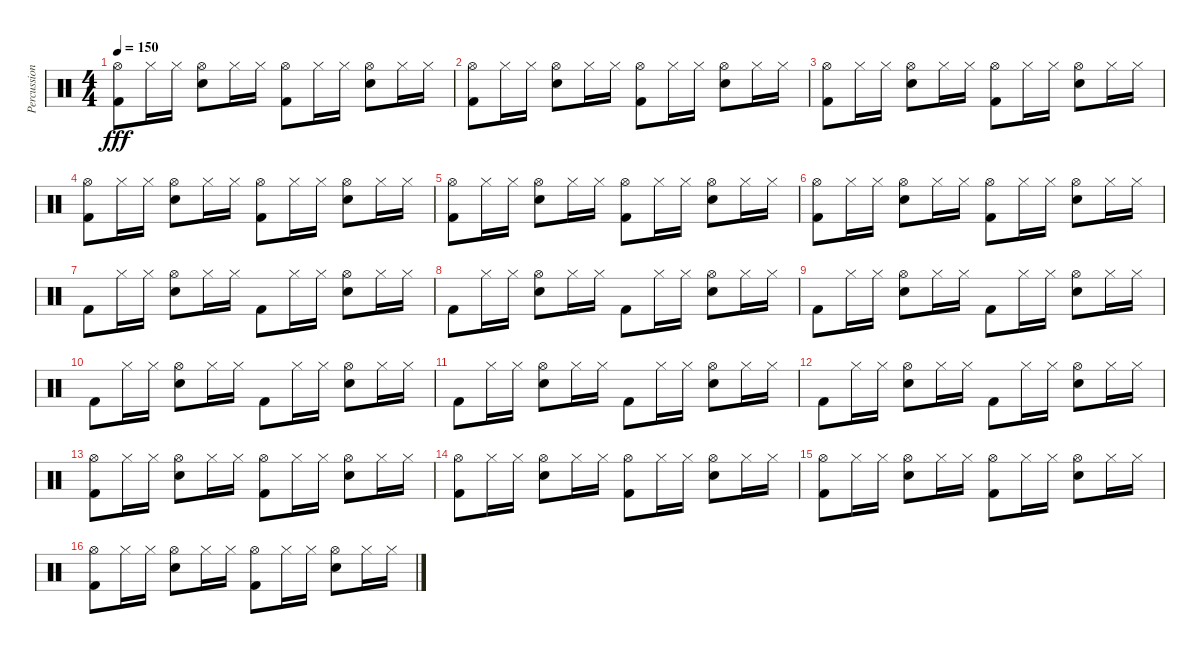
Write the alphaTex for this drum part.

\track ("Percussion" "Percussion") {instrument percussion}
\staff {score}
\articulation defaults
\ts (4 4)
\tempo 150
\clef neutral
\ks c
("Kick (hit) 2" "Hi-Hat (open)").8{dy fff} "Hi-Hat (closed)".16 "Hi-Hat (closed)".16 ("Snare (hit) 2" "Hi-Hat (open)").8 "Hi-Hat (closed)".16 "Hi-Hat (closed)".16 ("Kick (hit) 2" "Hi-Hat (open)").8 "Hi-Hat (closed)".16 "Hi-Hat (closed)".16 ("Snare (hit) 2" "Hi-Hat (open)").8 "Hi-Hat (closed)".16 "Hi-Hat (closed)".16 |
("Kick (hit) 2" "Hi-Hat (open)").8 "Hi-Hat (closed)".16 "Hi-Hat (closed)".16 ("Snare (hit) 2" "Hi-Hat (open)").8 "Hi-Hat (closed)".16 "Hi-Hat (closed)".16 ("Kick (hit) 2" "Hi-Hat (open)").8 "Hi-Hat (closed)".16 "Hi-Hat (closed)".16 ("Snare (hit) 2" "Hi-Hat (open)").8 "Hi-Hat (closed)".16 "Hi-Hat (closed)".16 |
("Kick (hit) 2" "Hi-Hat (open)").8 "Hi-Hat (closed)".16 "Hi-Hat (closed)".16 ("Snare (hit) 2" "Hi-Hat (open)").8 "Hi-Hat (closed)".16 "Hi-Hat (closed)".16 ("Kick (hit) 2" "Hi-Hat (open)").8 "Hi-Hat (closed)".16 "Hi-Hat (closed)".16 ("Snare (hit) 2" "Hi-Hat (open)").8 "Hi-Hat (closed)".16 "Hi-Hat (closed)".16 |
("Kick (hit) 2" "Hi-Hat (open)").8 "Hi-Hat (closed)".16 "Hi-Hat (closed)".16 ("Snare (hit) 2" "Hi-Hat (open)").8 "Hi-Hat (closed)".16 "Hi-Hat (closed)".16 ("Kick (hit) 2" "Hi-Hat (open)").8 "Hi-Hat (closed)".16 "Hi-Hat (closed)".16 ("Snare (hit) 2" "Hi-Hat (open)").8 "Hi-Hat (closed)".16 "Hi-Hat (closed)".16 |
("Kick (hit) 2" "Hi-Hat (open)").8 "Hi-Hat (closed)".16 "Hi-Hat (closed)".16 ("Snare (hit) 2" "Hi-Hat (open)").8 "Hi-Hat (closed)".16 "Hi-Hat (closed)".16 ("Kick (hit) 2" "Hi-Hat (open)").8 "Hi-Hat (closed)".16 "Hi-Hat (closed)".16 ("Snare (hit) 2" "Hi-Hat (open)").8 "Hi-Hat (closed)".16 "Hi-Hat (closed)".16 |
("Kick (hit) 2" "Hi-Hat (open)").8 "Hi-Hat (closed)".16 "Hi-Hat (closed)".16 ("Snare (hit) 2" "Hi-Hat (open)").8 "Hi-Hat (closed)".16 "Hi-Hat (closed)".16 ("Kick (hit) 2" "Hi-Hat (open)").8 "Hi-Hat (closed)".16 "Hi-Hat (closed)".16 ("Snare (hit) 2" "Hi-Hat (open)").8 "Hi-Hat (closed)".16 "Hi-Hat (closed)".16 |
"Kick (hit) 2".8 "Hi-Hat (closed)".16 "Hi-Hat (closed)".16 ("Snare (hit) 2" "Hi-Hat (open)").8 "Hi-Hat (closed)".16 "Hi-Hat (closed)".16 "Kick (hit) 2".8 "Hi-Hat (closed)".16 "Hi-Hat (closed)".16 ("Snare (hit) 2" "Hi-Hat (open)").8 "Hi-Hat (closed)".16 "Hi-Hat (closed)".16 |
"Kick (hit) 2".8 "Hi-Hat (closed)".16 "Hi-Hat (closed)".16 ("Snare (hit) 2" "Hi-Hat (open)").8 "Hi-Hat (closed)".16 "Hi-Hat (closed)".16 "Kick (hit) 2".8 "Hi-Hat (closed)".16 "Hi-Hat (closed)".16 ("Snare (hit) 2" "Hi-Hat (open)").8 "Hi-Hat (closed)".16 "Hi-Hat (closed)".16 |
"Kick (hit) 2".8 "Hi-Hat (closed)".16 "Hi-Hat (closed)".16 ("Snare (hit) 2" "Hi-Hat (open)").8 "Hi-Hat (closed)".16 "Hi-Hat (closed)".16 "Kick (hit) 2".8 "Hi-Hat (closed)".16 "Hi-Hat (closed)".16 ("Snare (hit) 2" "Hi-Hat (open)").8 "Hi-Hat (closed)".16 "Hi-Hat (closed)".16 |
"Kick (hit) 2".8 "Hi-Hat (closed)".16 "Hi-Hat (closed)".16 ("Snare (hit) 2" "Hi-Hat (open)").8 "Hi-Hat (closed)".16 "Hi-Hat (closed)".16 "Kick (hit) 2".8 "Hi-Hat (closed)".16 "Hi-Hat (closed)".16 ("Snare (hit) 2" "Hi-Hat (open)").8 "Hi-Hat (closed)".16 "Hi-Hat (closed)".16 |
"Kick (hit) 2".8 "Hi-Hat (closed)".16 "Hi-Hat (closed)".16 ("Snare (hit) 2" "Hi-Hat (open)").8 "Hi-Hat (closed)".16 "Hi-Hat (closed)".16 "Kick (hit) 2".8 "Hi-Hat (closed)".16 "Hi-Hat (closed)".16 ("Snare (hit) 2" "Hi-Hat (open)").8 "Hi-Hat (closed)".16 "Hi-Hat (closed)".16 |
"Kick (hit) 2".8 "Hi-Hat (closed)".16 "Hi-Hat (closed)".16 ("Snare (hit) 2" "Hi-Hat (open)").8 "Hi-Hat (closed)".16 "Hi-Hat (closed)".16 "Kick (hit) 2".8 "Hi-Hat (closed)".16 "Hi-Hat (closed)".16 ("Snare (hit) 2" "Hi-Hat (open)").8 "Hi-Hat (closed)".16 "Hi-Hat (closed)".16 |
("Kick (hit) 2" "Hi-Hat (open)").8 "Hi-Hat (closed)".16 "Hi-Hat (closed)".16 ("Snare (hit) 2" "Hi-Hat (open)").8 "Hi-Hat (closed)".16 "Hi-Hat (closed)".16 ("Kick (hit) 2" "Hi-Hat (open)").8 "Hi-Hat (closed)".16 "Hi-Hat (closed)".16 ("Snare (hit) 2" "Hi-Hat (open)").8 "Hi-Hat (closed)".16 "Hi-Hat (closed)".16 |
("Kick (hit) 2" "Hi-Hat (open)").8 "Hi-Hat (closed)".16 "Hi-Hat (closed)".16 ("Snare (hit) 2" "Hi-Hat (open)").8 "Hi-Hat (closed)".16 "Hi-Hat (closed)".16 ("Kick (hit) 2" "Hi-Hat (open)").8 "Hi-Hat (closed)".16 "Hi-Hat (closed)".16 ("Snare (hit) 2" "Hi-Hat (open)").8 "Hi-Hat (closed)".16 "Hi-Hat (closed)".16 |
("Kick (hit) 2" "Hi-Hat (open)").8 "Hi-Hat (closed)".16 "Hi-Hat (closed)".16 ("Snare (hit) 2" "Hi-Hat (open)").8 "Hi-Hat (closed)".16 "Hi-Hat (closed)".16 ("Kick (hit) 2" "Hi-Hat (open)").8 "Hi-Hat (closed)".16 "Hi-Hat (closed)".16 ("Snare (hit) 2" "Hi-Hat (open)").8 "Hi-Hat (closed)".16 "Hi-Hat (closed)".16 |
("Kick (hit) 2" "Hi-Hat (open)").8 "Hi-Hat (closed)".16 "Hi-Hat (closed)".16 ("Snare (hit) 2" "Hi-Hat (open)").8 "Hi-Hat (closed)".16 "Hi-Hat (closed)".16 ("Kick (hit) 2" "Hi-Hat (open)").8 "Hi-Hat (closed)".16 "Hi-Hat (closed)".16 ("Snare (hit) 2" "Hi-Hat (open)").8 "Hi-Hat (closed)".16 "Hi-Hat (closed)".16
